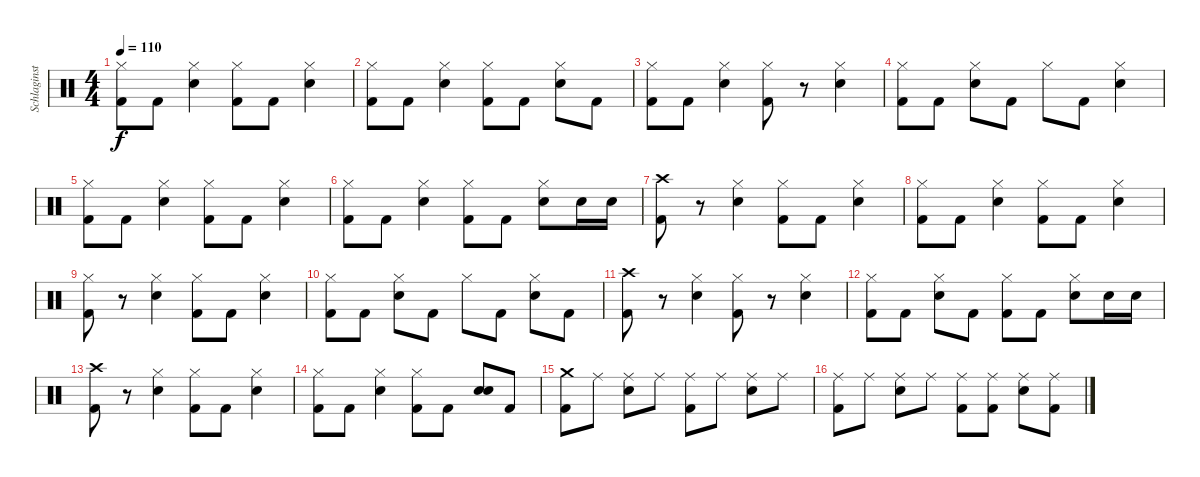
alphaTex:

\track ("Schlaginstrumente - Auswahl" "Schlaginst") {instrument percussion}
\staff {score}
\articulation defaults
\ts (4 4)
\tempo 110
\clef neutral
\ks c
("Hi-Hat (closed)" "Kick (hit) 2").8{dy f} "Kick (hit) 2".8 ("Hi-Hat (closed)" "Snare (hit) 2").4 ("Hi-Hat (closed)" "Kick (hit) 2").8 "Kick (hit) 2".8 ("Hi-Hat (closed)" "Snare (hit) 2").4 |
("Hi-Hat (closed)" "Kick (hit) 2").8 "Kick (hit) 2".8 ("Hi-Hat (closed)" "Snare (hit) 2").4 ("Hi-Hat (closed)" "Kick (hit) 2").8 "Kick (hit) 2".8 ("Hi-Hat (closed)" "Snare (hit) 2").8 "Kick (hit) 2".8 |
("Hi-Hat (closed)" "Kick (hit) 2").8 "Kick (hit) 2".8 ("Hi-Hat (closed)" "Snare (hit) 2").4 ("Hi-Hat (closed)" "Kick (hit) 2").8 r.8 ("Hi-Hat (closed)" "Snare (hit) 2").4 |
("Hi-Hat (closed)" "Kick (hit) 2").8 "Kick (hit) 2".8 ("Hi-Hat (closed)" "Snare (hit) 2").8 "Kick (hit) 2".8 "Hi-Hat (closed)".8 "Kick (hit) 2".8 ("Hi-Hat (closed)" "Snare (hit) 2").4 |
("Hi-Hat (closed)" "Kick (hit) 2").8 "Kick (hit) 2".8 ("Hi-Hat (closed)" "Snare (hit) 2").4 ("Hi-Hat (closed)" "Kick (hit) 2").8 "Kick (hit) 2".8 ("Hi-Hat (closed)" "Snare (hit) 2").4 |
("Hi-Hat (closed)" "Kick (hit) 2").8 "Kick (hit) 2".8 ("Hi-Hat (closed)" "Snare (hit) 2").4 ("Hi-Hat (closed)" "Kick (hit) 2").8 "Kick (hit) 2".8 ("Hi-Hat (closed)" "Snare (hit) 2").8 "Snare (hit) 2".16 "Snare (hit) 2".16 |
("Crash high (hit)" "Kick (hit) 2").8 r.8 ("Hi-Hat (closed)" "Snare (hit) 2").4 ("Hi-Hat (closed)" "Kick (hit) 2").8 "Kick (hit) 2".8 ("Hi-Hat (closed)" "Snare (hit) 2").4 |
("Hi-Hat (closed)" "Kick (hit) 2").8 "Kick (hit) 2".8 ("Hi-Hat (closed)" "Snare (hit) 2").4 ("Hi-Hat (closed)" "Kick (hit) 2").8 "Kick (hit) 2".8 ("Hi-Hat (closed)" "Snare (hit) 2").4 |
("Hi-Hat (closed)" "Kick (hit) 2").8 r.8 ("Hi-Hat (closed)" "Snare (hit) 2").4 ("Hi-Hat (closed)" "Kick (hit) 2").8 "Kick (hit) 2".8 ("Hi-Hat (closed)" "Snare (hit) 2").4 |
("Hi-Hat (closed)" "Kick (hit) 2").8 "Kick (hit) 2".8 ("Hi-Hat (closed)" "Snare (hit) 2").8 "Kick (hit) 2".8 "Hi-Hat (closed)".8 "Kick (hit) 2".8 ("Hi-Hat (closed)" "Snare (hit) 2").8 "Kick (hit) 2".8 |
("Crash high (hit)" "Kick (hit) 2").8 r.8 ("Hi-Hat (closed)" "Snare (hit) 2").4 ("Hi-Hat (closed)" "Kick (hit) 2").8 r.8 ("Hi-Hat (closed)" "Snare (hit) 2").4 |
("Hi-Hat (closed)" "Kick (hit) 2").8 "Kick (hit) 2".8 ("Hi-Hat (closed)" "Snare (hit) 2").8 "Kick (hit) 2".8 ("Hi-Hat (closed)" "Kick (hit) 2").8 "Kick (hit) 2".8 ("Hi-Hat (closed)" "Snare (hit) 2").8 "Snare (hit) 2".16 "Snare (hit) 2".16 |
("Crash high (hit)" "Kick (hit) 2").8 r.8 ("Hi-Hat (closed)" "Snare (hit) 2").4 ("Hi-Hat (closed)" "Kick (hit) 2").8 "Kick (hit) 2".8 ("Hi-Hat (closed)" "Snare (hit) 2").4 |
("Hi-Hat (closed)" "Kick (hit) 2").8 "Kick (hit) 2".8 ("Hi-Hat (closed)" "Snare (hit) 2").4 ("Hi-Hat (closed)" "Kick (hit) 2").8 "Kick (hit) 2".8 ("Snare (hit) 2" "Snare (hit) 2").8{bd 120} "Kick (hit) 2".8 |
("Crash medium (hit)" "Kick (hit) 2").8 "Ride (middle)".8 ("Ride (middle)" "Snare (hit) 2").8 "Ride (middle)".8 ("Ride (middle)" "Kick (hit) 2").8 "Ride (middle)".8 ("Ride (middle)" "Snare (hit) 2").8 "Ride (middle)".8 |
("Ride (middle)" "Kick (hit) 2").8 "Ride (middle)".8 ("Ride (middle)" "Snare (hit) 2").8 "Ride (middle)".8 ("Ride (middle)" "Kick (hit) 2").8 ("Ride (middle)" "Kick (hit) 2").8 ("Ride (middle)" "Snare (hit) 2").8 ("Ride (middle)" "Kick (hit) 2").8
